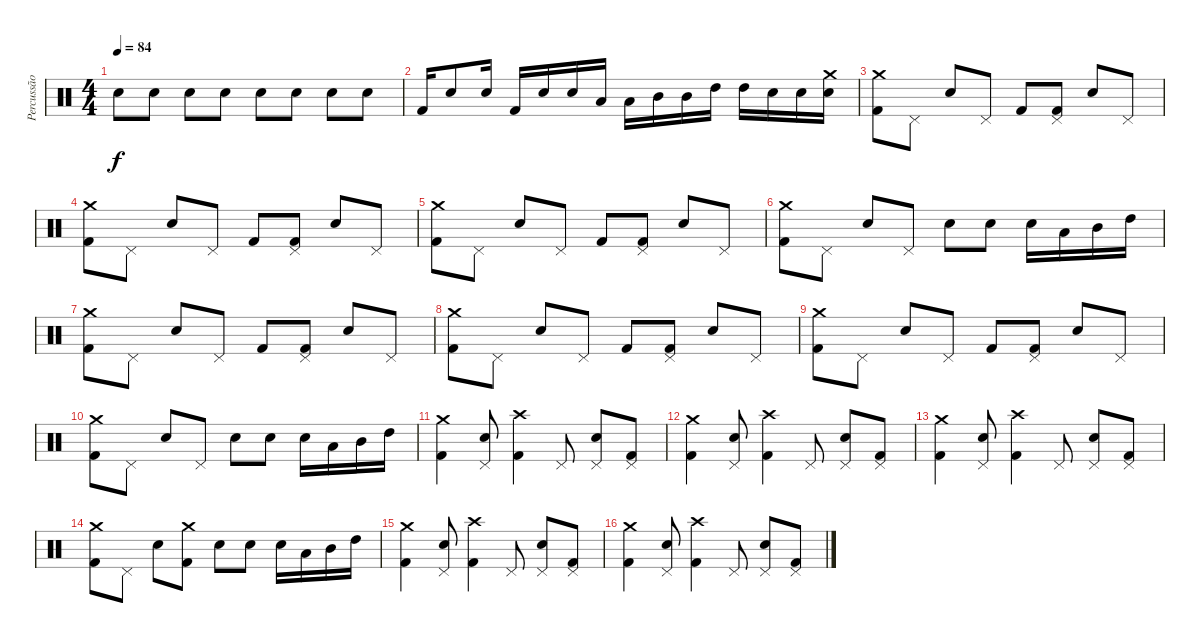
\track ("Percussão" "Percussão") {instrument percussion}
\staff {score}
\articulation defaults
\ts (4 4)
\tempo 84
\clef neutral
\ks c "Snare (hit) 2".8{dy f} "Snare (hit) 2".8 "Snare (hit) 2".8 "Snare (hit) 2".8 "Snare (hit) 2".8 "Snare (hit) 2".8 "Snare (hit) 2".8 "Snare (hit) 2".8
|
"Kick (hit) 2".16 "Snare (hit) 2".8 "Snare (hit) 2".16 "Kick (hit) 2".16 "Snare (hit) 2".16 "Snare (hit) 2".16 "Low Tom (hit)".16 "Low Tom (hit)".16 "Mid Tom (hit)".16 "Mid Tom (hit)".16 "High Tom (hit)".16 "High Tom (hit)".16 "Snare (hit) 2".16 "Snare (hit) 2".16 ("Crash medium (hit)" "Snare (hit) 2").16 |
("Crash medium (hit)" "Kick (hit) 2").8 "Pedal Hi-Hat (hit)".8 "Snare (hit) 2".8 "Pedal Hi-Hat (hit)".8 "Kick (hit) 2".8 ("Pedal Hi-Hat (hit)" "Kick (hit) 2").8 "Snare (hit) 2".8 "Pedal Hi-Hat (hit)".8 |
("Crash medium (hit)" "Kick (hit) 2").8 "Pedal Hi-Hat (hit)".8 "Snare (hit) 2".8 "Pedal Hi-Hat (hit)".8 "Kick (hit) 2".8 ("Pedal Hi-Hat (hit)" "Kick (hit) 2").8 "Snare (hit) 2".8 "Pedal Hi-Hat (hit)".8 |
("Crash medium (hit)" "Kick (hit) 2").8 "Pedal Hi-Hat (hit)".8 "Snare (hit) 2".8 "Pedal Hi-Hat (hit)".8 "Kick (hit) 2".8 ("Pedal Hi-Hat (hit)" "Kick (hit) 2").8 "Snare (hit) 2".8 "Pedal Hi-Hat (hit)".8 |
("Crash medium (hit)" "Kick (hit) 2").8 "Pedal Hi-Hat (hit)".8 "Snare (hit) 2".8 "Pedal Hi-Hat (hit)".8 "Electric Snare (hit)".8 "Electric Snare (hit)".8 "Electric Snare (hit)".16 "Low Tom (hit)".16 "Mid Tom (hit)".16 "High Tom (hit)".16 |
("Crash medium (hit)" "Kick (hit) 2").8 "Pedal Hi-Hat (hit)".8 "Snare (hit) 2".8 "Pedal Hi-Hat (hit)".8 "Kick (hit) 2".8 ("Pedal Hi-Hat (hit)" "Kick (hit) 2").8 "Snare (hit) 2".8 "Pedal Hi-Hat (hit)".8 |
("Crash medium (hit)" "Kick (hit) 2").8 "Pedal Hi-Hat (hit)".8 "Snare (hit) 2".8 "Pedal Hi-Hat (hit)".8 "Kick (hit) 2".8 ("Pedal Hi-Hat (hit)" "Kick (hit) 2").8 "Snare (hit) 2".8 "Pedal Hi-Hat (hit)".8 |
("Crash medium (hit)" "Kick (hit) 2").8 "Pedal Hi-Hat (hit)".8 "Snare (hit) 2".8 "Pedal Hi-Hat (hit)".8 "Kick (hit) 2".8 ("Pedal Hi-Hat (hit)" "Kick (hit) 2").8 "Snare (hit) 2".8 "Pedal Hi-Hat (hit)".8 |
("Crash medium (hit)" "Kick (hit) 2").8 "Pedal Hi-Hat (hit)".8 "Snare (hit) 2".8 "Pedal Hi-Hat (hit)".8 "Electric Snare (hit)".8 "Electric Snare (hit)".8 "Electric Snare (hit)".16 "Low Tom (hit)".16 "Mid Tom (hit)".16 "High Tom (hit)".16 |
("Crash medium (hit)" "Kick (hit) 2").4 ("Pedal Hi-Hat (hit)" "Snare (hit) 2").8 ("Crash high (hit)" "Kick (hit) 2").4 "Pedal Hi-Hat (hit)".8 ("Pedal Hi-Hat (hit)" "Snare (hit) 2").8 ("Pedal Hi-Hat (hit)" "Kick (hit) 2").8 |
("Crash medium (hit)" "Kick (hit) 2").4 ("Pedal Hi-Hat (hit)" "Snare (hit) 2").8 ("Crash high (hit)" "Kick (hit) 2").4 "Pedal Hi-Hat (hit)".8 ("Pedal Hi-Hat (hit)" "Snare (hit) 2").8 ("Pedal Hi-Hat (hit)" "Kick (hit) 2").8 |
("Crash medium (hit)" "Kick (hit) 2").4 ("Pedal Hi-Hat (hit)" "Snare (hit) 2").8 ("Crash high (hit)" "Kick (hit) 2").4 "Pedal Hi-Hat (hit)".8 ("Pedal Hi-Hat (hit)" "Snare (hit) 2").8 ("Pedal Hi-Hat (hit)" "Kick (hit) 2").8 |
("Crash medium (hit)" "Kick (hit) 2").8 "Pedal Hi-Hat (hit)".8 "Snare (hit) 2".8 ("Crash medium (hit)" "Kick (hit) 2").8 "Electric Snare (hit)".8 "Electric Snare (hit)".8 "Electric Snare (hit)".16 "Low Tom (hit)".16 "Mid Tom (hit)".16 "High Tom (hit)".16 |
("Crash medium (hit)" "Kick (hit) 2").4 ("Pedal Hi-Hat (hit)" "Snare (hit) 2").8 ("Crash high (hit)" "Kick (hit) 2").4 "Pedal Hi-Hat (hit)".8 ("Pedal Hi-Hat (hit)" "Snare (hit) 2").8 ("Pedal Hi-Hat (hit)" "Kick (hit) 2").8 |
("Crash medium (hit)" "Kick (hit) 2").4 ("Pedal Hi-Hat (hit)" "Snare (hit) 2").8 ("Crash high (hit)" "Kick (hit) 2").4 "Pedal Hi-Hat (hit)".8 ("Pedal Hi-Hat (hit)" "Snare (hit) 2").8 ("Pedal Hi-Hat (hit)" "Kick (hit) 2").8
